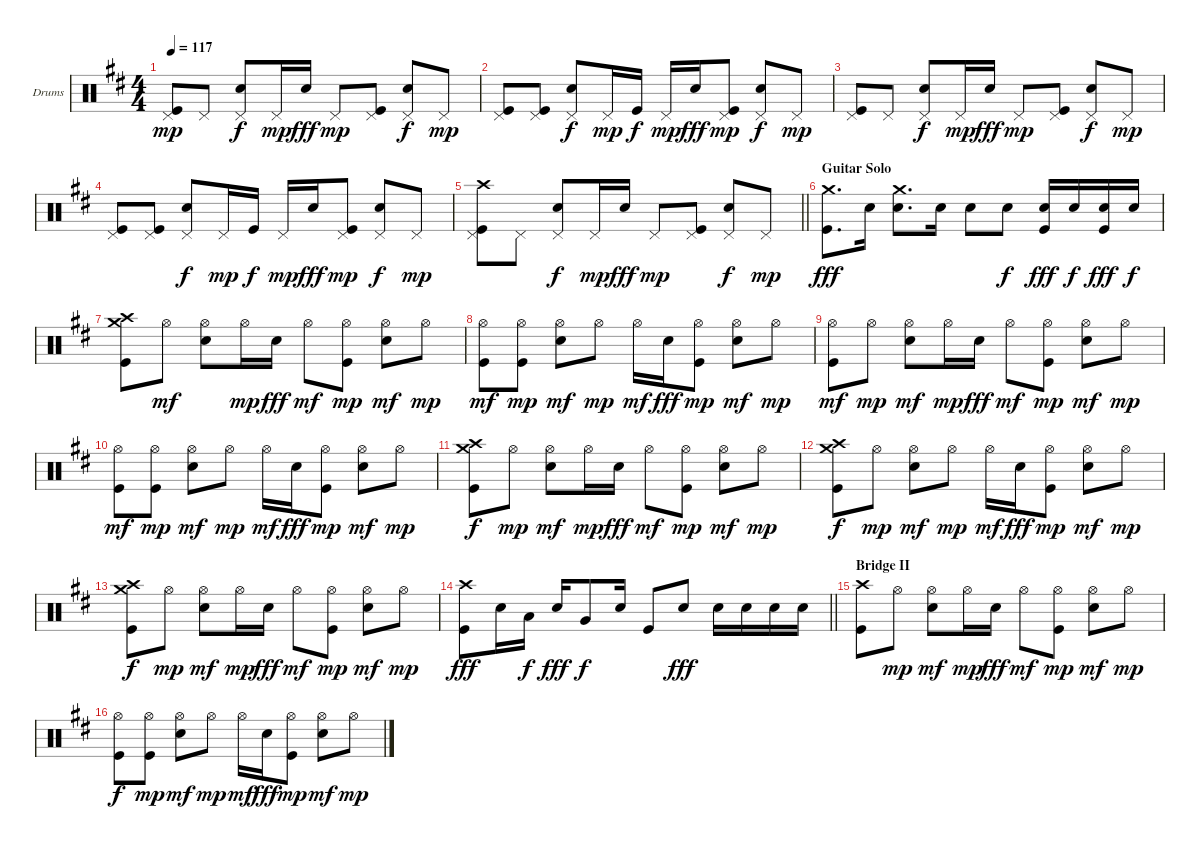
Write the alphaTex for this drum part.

\bracketExtendMode groupsimilarinstruments
\firstSystemTrackNameOrientation horizontal
\otherSystemsTrackNameOrientation horizontal
\track ("Drumkit" "Drums") {instrument percussion}
\staff {score}
\articulation defaults
\ts (4 4)
\tempo 117
\clef neutral
\ks d
("Pedal Hi-Hat (hit)" "Kick (hit)").8{dy mp} "Pedal Hi-Hat (hit)".8 ("Pedal Hi-Hat (hit)" "Snare (hit) 2").8{dy f} "Pedal Hi-Hat (hit)".16{dy mp} "Snare (hit) 2".16{dy fff} "Pedal Hi-Hat (hit)".8{dy mp} ("Pedal Hi-Hat (hit)" "Kick (hit)").8 ("Pedal Hi-Hat (hit)" "Snare (hit) 2").8{dy f} "Pedal Hi-Hat (hit)".8{dy mp} |
("Pedal Hi-Hat (hit)" "Kick (hit)").8 ("Pedal Hi-Hat (hit)" "Kick (hit)").8 ("Pedal Hi-Hat (hit)" "Snare (hit) 2").8{dy f} "Pedal Hi-Hat (hit)".16{dy mp} "Kick (hit)".16{dy f} "Pedal Hi-Hat (hit)".16{dy mp} "Snare (hit) 2".16{dy fff} ("Pedal Hi-Hat (hit)" "Kick (hit)").8{dy mp} ("Pedal Hi-Hat (hit)" "Snare (hit) 2").8{dy f} "Pedal Hi-Hat (hit)".8{dy mp} |
("Pedal Hi-Hat (hit)" "Kick (hit)").8 "Pedal Hi-Hat (hit)".8 ("Pedal Hi-Hat (hit)" "Snare (hit) 2").8{dy f} "Pedal Hi-Hat (hit)".16{dy mp} "Snare (hit) 2".16{dy fff} "Pedal Hi-Hat (hit)".8{dy mp} ("Pedal Hi-Hat (hit)" "Kick (hit)").8 ("Pedal Hi-Hat (hit)" "Snare (hit) 2").8{dy f} "Pedal Hi-Hat (hit)".8{dy mp} |
("Pedal Hi-Hat (hit)" "Kick (hit)").8 ("Pedal Hi-Hat (hit)" "Kick (hit)").8 ("Pedal Hi-Hat (hit)" "Snare (hit) 2").8{dy f} "Pedal Hi-Hat (hit)".16{dy mp} "Kick (hit)".16{dy f} "Pedal Hi-Hat (hit)".16{dy mp} "Snare (hit) 2".16{dy fff} ("Pedal Hi-Hat (hit)" "Kick (hit)").8{dy mp} ("Pedal Hi-Hat (hit)" "Snare (hit) 2").8{dy f} "Pedal Hi-Hat (hit)".8{dy mp} |
\barLineRight lightlight
("Pedal Hi-Hat (hit)" "Crash high (hit)" "Kick (hit)").8 "Pedal Hi-Hat (hit)".8 ("Pedal Hi-Hat (hit)" "Snare (hit) 2").8{dy f} "Pedal Hi-Hat (hit)".16{dy mp} "Snare (hit) 2".16{dy fff} "Pedal Hi-Hat (hit)".8{dy mp} ("Pedal Hi-Hat (hit)" "Kick (hit)").8 ("Pedal Hi-Hat (hit)" "Snare (hit) 2").8{dy f} "Pedal Hi-Hat (hit)".8{dy mp} |
\section ("" "Guitar Solo")
("Crash medium (hit)" "Kick (hit)").8{d dy fff} "Snare (hit) 2".16 ("Crash medium (hit)" "Snare (hit) 2").8{d} "Snare (hit) 2".16 "Snare (hit) 2".8 "Snare (hit) 2".8{dy f} ("Kick (hit)" "Snare (hit) 2").16{dy fff} "Snare (hit) 2".16{dy f} ("Kick (hit)" "Snare (hit) 2").16{dy fff} "Snare (hit) 2".16{dy f} |
("Crash high (hit)" "Crash medium (hit)" "Kick (hit)").8 "Hi-Hat (open)".8{dy mf} ("Hi-Hat (open)" "Snare (hit) 2").8 "Hi-Hat (open)".16{dy mp} "Snare (hit) 2".16{dy fff} "Hi-Hat (open)".8{dy mf} ("Hi-Hat (open)" "Kick (hit)").8{dy mp} ("Hi-Hat (open)" "Snare (hit) 2").8{dy mf} "Hi-Hat (open)".8{dy mp} |
("Hi-Hat (open)" "Kick (hit)").8{dy mf} ("Hi-Hat (open)" "Kick (hit)").8{dy mp} ("Hi-Hat (open)" "Snare (hit) 2").8{dy mf} "Hi-Hat (open)".8{dy mp} "Hi-Hat (open)".16{dy mf} "Snare (hit) 2".16{dy fff} ("Hi-Hat (open)" "Kick (hit)").8{dy mp} ("Hi-Hat (open)" "Snare (hit) 2").8{dy mf} "Hi-Hat (open)".8{dy mp} |
("Hi-Hat (open)" "Kick (hit)").8{dy mf} "Hi-Hat (open)".8{dy mp} ("Hi-Hat (open)" "Snare (hit) 2").8{dy mf} "Hi-Hat (open)".16{dy mp} "Snare (hit) 2".16{dy fff} "Hi-Hat (open)".8{dy mf} ("Hi-Hat (open)" "Kick (hit)").8{dy mp} ("Hi-Hat (open)" "Snare (hit) 2").8{dy mf} "Hi-Hat (open)".8{dy mp} |
("Hi-Hat (open)" "Kick (hit)").8{dy mf} ("Hi-Hat (open)" "Kick (hit)").8{dy mp} ("Hi-Hat (open)" "Snare (hit) 2").8{dy mf} "Hi-Hat (open)".8{dy mp} "Hi-Hat (open)".16{dy mf} "Snare (hit) 2".16{dy fff} ("Hi-Hat (open)" "Kick (hit)").8{dy mp} ("Hi-Hat (open)" "Snare (hit) 2").8{dy mf} "Hi-Hat (open)".8{dy mp} |
("Crash high (hit)" "Crash medium (hit)" "Kick (hit)").8{dy f} "Hi-Hat (open)".8{dy mp} ("Hi-Hat (open)" "Snare (hit) 2").8{dy mf} "Hi-Hat (open)".16{dy mp} "Snare (hit) 2".16{dy fff} "Hi-Hat (open)".8{dy mf} ("Hi-Hat (open)" "Kick (hit)").8{dy mp} ("Hi-Hat (open)" "Snare (hit) 2").8{dy mf} "Hi-Hat (open)".8{dy mp} |
("Kick (hit)" "Crash medium (hit)" "Crash high (hit)").8{dy f} "Hi-Hat (open)".8{dy mp} ("Hi-Hat (open)" "Snare (hit) 2").8{dy mf} "Hi-Hat (open)".8{dy mp} "Hi-Hat (open)".16{dy mf} "Snare (hit) 2".16{dy fff} ("Hi-Hat (open)" "Kick (hit)").8{dy mp} ("Hi-Hat (open)" "Snare (hit) 2").8{dy mf} "Hi-Hat (open)".8{dy mp} |
("Crash high (hit)" "Crash medium (hit)" "Kick (hit)").8{dy f} "Hi-Hat (open)".8{dy mp} ("Hi-Hat (open)" "Snare (hit) 2").8{dy mf} "Hi-Hat (open)".16{dy mp} "Snare (hit) 2".16{dy fff} "Hi-Hat (open)".8{dy mf} ("Hi-Hat (open)" "Kick (hit)").8{dy mp} ("Hi-Hat (open)" "Snare (hit) 2").8{dy mf} "Hi-Hat (open)".8{dy mp} |
\barLineRight lightlight
("Crash high (hit)" "Kick (hit)").8{dy fff} "Snare (hit) 2".16 "Low Tom (hit)".16{dy f} "Snare (hit) 2".16{dy fff} "Very Low Tom (hit)".8{dy f} "Snare (hit) 2".16 "Kick (hit)".8 "Snare (hit) 2".8{dy fff} "Snare (hit) 2".16 "Snare (hit) 2".16 "Snare (hit) 2".16 "Snare (hit) 2".16 |
\section ("" "Bridge II")
("Crash high (hit)" "Kick (hit)").8 "Hi-Hat (open)".8{dy mp} ("Hi-Hat (open)" "Snare (hit) 2").8{dy mf} "Hi-Hat (open)".16{dy mp} "Snare (hit) 2".16{dy fff} "Hi-Hat (open)".8{dy mf} ("Hi-Hat (open)" "Kick (hit)").8{dy mp} ("Hi-Hat (open)" "Snare (hit) 2").8{dy mf} "Hi-Hat (open)".8{dy mp} |
("Hi-Hat (open)" "Kick (hit)").8{dy f} ("Hi-Hat (open)" "Kick (hit)").8{dy mp} ("Hi-Hat (open)" "Snare (hit) 2").8{dy mf} "Hi-Hat (open)".8{dy mp} "Hi-Hat (open)".16{dy mf} "Snare (hit) 2".16{dy fff} ("Hi-Hat (open)" "Kick (hit)").8{dy mp} ("Hi-Hat (open)" "Snare (hit) 2").8{dy mf} "Hi-Hat (open)".8{dy mp}
